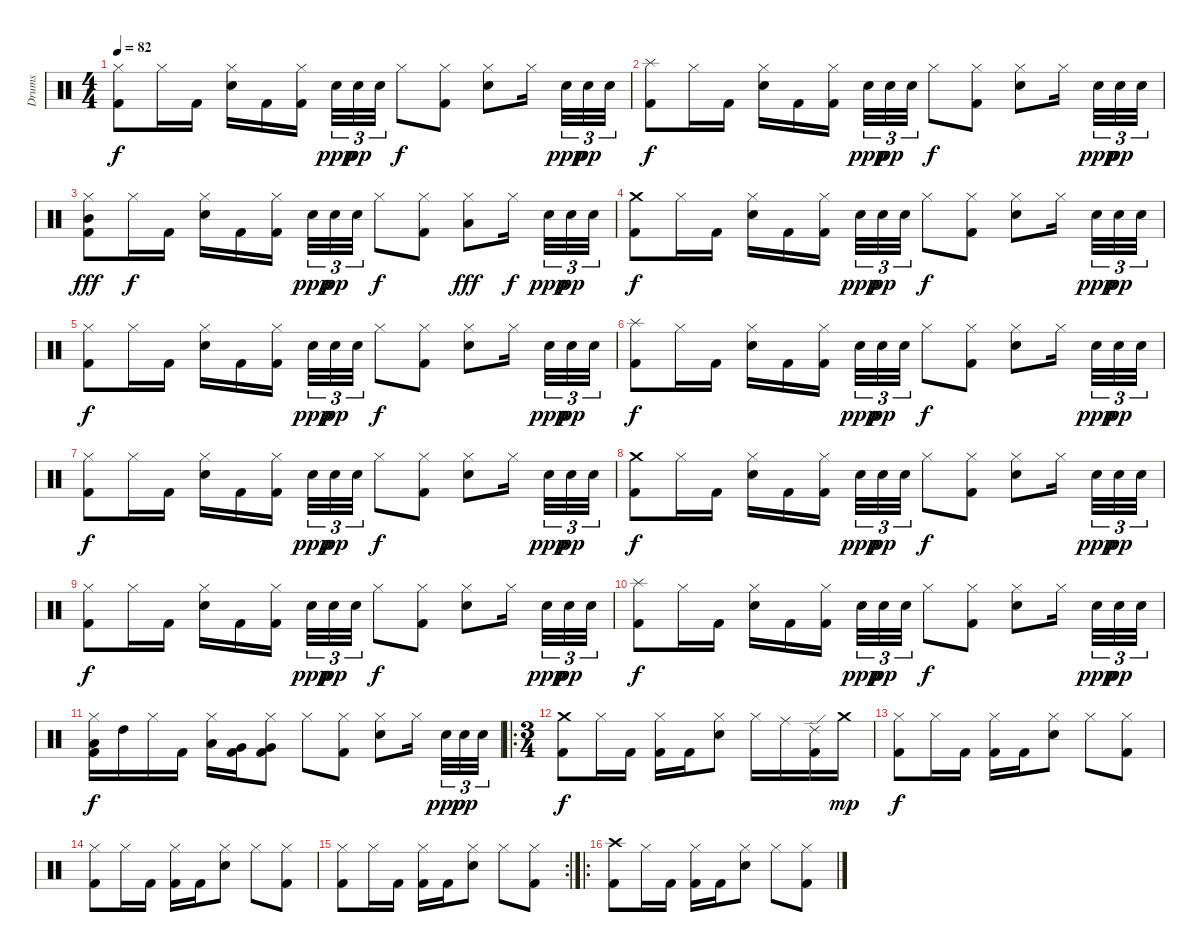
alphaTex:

\track ("Drums" "Drums") {instrument percussion}
\staff {score}
\articulation defaults
\ts (4 4)
\tempo 82
\clef neutral
\ks c
("Hi-Hat (closed)" "Kick (hit) 2").8{dy f} "Hi-Hat (closed)".16 "Kick (hit) 2".16 ("Hi-Hat (closed)" "Snare (hit) 2").16 "Kick (hit) 2".16 ("Hi-Hat (closed)" "Kick (hit) 2").16 "Snare (hit) 2".32{tu (3 2) dy ppp} "Snare (hit) 2".32{tu (3 2) dy pp} "Snare (hit) 2".32{tu (3 2)} "Hi-Hat (closed)".8{dy f} ("Hi-Hat (closed)" "Kick (hit) 2").8 ("Hi-Hat (closed)" "Snare (hit) 2").8 "Hi-Hat (closed)".16 "Snare (hit) 2".32{tu (3 2) dy ppp} "Snare (hit) 2".32{tu (3 2) dy pp} "Snare (hit) 2".32{tu (3 2)} |
("Splash (hit)" "Kick (hit) 2").8{dy f} "Hi-Hat (closed)".16 "Kick (hit) 2".16 ("Hi-Hat (closed)" "Snare (hit) 2").16 "Kick (hit) 2".16 ("Hi-Hat (closed)" "Kick (hit) 2").16 "Snare (hit) 2".32{tu (3 2) dy ppp} "Snare (hit) 2".32{tu (3 2) dy pp} "Snare (hit) 2".32{tu (3 2)} "Hi-Hat (closed)".8{dy f} ("Hi-Hat (closed)" "Kick (hit) 2").8 ("Hi-Hat (closed)" "Snare (hit) 2").8 "Hi-Hat (closed)".16 "Snare (hit) 2".32{tu (3 2) dy ppp} "Snare (hit) 2".32{tu (3 2) dy pp} "Snare (hit) 2".32{tu (3 2)} |
("Hi-Hat (closed)" "Mid Tom (hit)" "Kick (hit) 2").8{dy fff} "Hi-Hat (closed)".16{dy f} "Kick (hit) 2".16 ("Hi-Hat (closed)" "Snare (hit) 2").16 "Kick (hit) 2".16 ("Hi-Hat (closed)" "Kick (hit) 2").16 "Snare (hit) 2".32{tu (3 2) dy ppp} "Snare (hit) 2".32{tu (3 2) dy pp} "Snare (hit) 2".32{tu (3 2)} "Hi-Hat (closed)".8{dy f} ("Hi-Hat (closed)" "Kick (hit) 2").8 ("Hi-Hat (closed)" "Low Tom (hit)").8{dy fff} "Hi-Hat (closed)".16{dy f} "Snare (hit) 2".32{tu (3 2) dy ppp} "Snare (hit) 2".32{tu (3 2) dy pp} "Snare (hit) 2".32{tu (3 2)} |
("Crash medium (hit)" "Kick (hit) 2").8{dy f} "Hi-Hat (closed)".16 "Kick (hit) 2".16 ("Hi-Hat (closed)" "Snare (hit) 2").16 "Kick (hit) 2".16 ("Hi-Hat (closed)" "Kick (hit) 2").16 "Snare (hit) 2".32{tu (3 2) dy ppp} "Snare (hit) 2".32{tu (3 2) dy pp} "Snare (hit) 2".32{tu (3 2)} "Hi-Hat (closed)".8{dy f} ("Hi-Hat (closed)" "Kick (hit) 2").8 ("Hi-Hat (closed)" "Snare (hit) 2").8 "Hi-Hat (closed)".16 "Snare (hit) 2".32{tu (3 2) dy ppp} "Snare (hit) 2".32{tu (3 2) dy pp} "Snare (hit) 2".32{tu (3 2)} |
("Hi-Hat (closed)" "Kick (hit) 2").8{dy f} "Hi-Hat (closed)".16 "Kick (hit) 2".16 ("Hi-Hat (closed)" "Snare (hit) 2").16 "Kick (hit) 2".16 ("Hi-Hat (closed)" "Kick (hit) 2").16 "Snare (hit) 2".32{tu (3 2) dy ppp} "Snare (hit) 2".32{tu (3 2) dy pp} "Snare (hit) 2".32{tu (3 2)} "Hi-Hat (closed)".8{dy f} ("Hi-Hat (closed)" "Kick (hit) 2").8 ("Hi-Hat (closed)" "Snare (hit) 2").8 "Hi-Hat (closed)".16 "Snare (hit) 2".32{tu (3 2) dy ppp} "Snare (hit) 2".32{tu (3 2) dy pp} "Snare (hit) 2".32{tu (3 2)} |
("Splash (hit)" "Kick (hit) 2").8{dy f} "Hi-Hat (closed)".16 "Kick (hit) 2".16 ("Hi-Hat (closed)" "Snare (hit) 2").16 "Kick (hit) 2".16 ("Hi-Hat (closed)" "Kick (hit) 2").16 "Snare (hit) 2".32{tu (3 2) dy ppp} "Snare (hit) 2".32{tu (3 2) dy pp} "Snare (hit) 2".32{tu (3 2)} "Hi-Hat (closed)".8{dy f} ("Hi-Hat (closed)" "Kick (hit) 2").8 ("Hi-Hat (closed)" "Snare (hit) 2").8 "Hi-Hat (closed)".16 "Snare (hit) 2".32{tu (3 2) dy ppp} "Snare (hit) 2".32{tu (3 2) dy pp} "Snare (hit) 2".32{tu (3 2)} |
("Hi-Hat (closed)" "Kick (hit) 2").8{dy f} "Hi-Hat (closed)".16 "Kick (hit) 2".16 ("Hi-Hat (closed)" "Snare (hit) 2").16 "Kick (hit) 2".16 ("Hi-Hat (closed)" "Kick (hit) 2").16 "Snare (hit) 2".32{tu (3 2) dy ppp} "Snare (hit) 2".32{tu (3 2) dy pp} "Snare (hit) 2".32{tu (3 2)} "Hi-Hat (closed)".8{dy f} ("Hi-Hat (closed)" "Kick (hit) 2").8 ("Hi-Hat (closed)" "Snare (hit) 2").8 "Hi-Hat (closed)".16 "Snare (hit) 2".32{tu (3 2) dy ppp} "Snare (hit) 2".32{tu (3 2) dy pp} "Snare (hit) 2".32{tu (3 2)} |
("Crash medium (hit)" "Kick (hit) 2").8{dy f} "Hi-Hat (closed)".16 "Kick (hit) 2".16 ("Hi-Hat (closed)" "Snare (hit) 2").16 "Kick (hit) 2".16 ("Hi-Hat (closed)" "Kick (hit) 2").16 "Snare (hit) 2".32{tu (3 2) dy ppp} "Snare (hit) 2".32{tu (3 2) dy pp} "Snare (hit) 2".32{tu (3 2)} "Hi-Hat (closed)".8{dy f} ("Hi-Hat (closed)" "Kick (hit) 2").8 ("Hi-Hat (closed)" "Snare (hit) 2").8 "Hi-Hat (closed)".16 "Snare (hit) 2".32{tu (3 2) dy ppp} "Snare (hit) 2".32{tu (3 2) dy pp} "Snare (hit) 2".32{tu (3 2)} |
("Hi-Hat (closed)" "Kick (hit) 2").8{dy f} "Hi-Hat (closed)".16 "Kick (hit) 2".16 ("Hi-Hat (closed)" "Snare (hit) 2").16 "Kick (hit) 2".16 ("Hi-Hat (closed)" "Kick (hit) 2").16 "Snare (hit) 2".32{tu (3 2) dy ppp} "Snare (hit) 2".32{tu (3 2) dy pp} "Snare (hit) 2".32{tu (3 2)} "Hi-Hat (closed)".8{dy f} ("Hi-Hat (closed)" "Kick (hit) 2").8 ("Hi-Hat (closed)" "Snare (hit) 2").8 "Hi-Hat (closed)".16 "Snare (hit) 2".32{tu (3 2) dy ppp} "Snare (hit) 2".32{tu (3 2) dy pp} "Snare (hit) 2".32{tu (3 2)} |
("Splash (hit)" "Kick (hit) 2").8{dy f} "Hi-Hat (closed)".16 "Kick (hit) 2".16 ("Hi-Hat (closed)" "Snare (hit) 2").16 "Kick (hit) 2".16 ("Hi-Hat (closed)" "Kick (hit) 2").16 "Snare (hit) 2".32{tu (3 2) dy ppp} "Snare (hit) 2".32{tu (3 2) dy pp} "Snare (hit) 2".32{tu (3 2)} "Hi-Hat (closed)".8{dy f} ("Hi-Hat (closed)" "Kick (hit) 2").8 ("Hi-Hat (closed)" "Snare (hit) 2").8 "Hi-Hat (closed)".16 "Snare (hit) 2".32{tu (3 2) dy ppp} "Snare (hit) 2".32{tu (3 2) dy pp} "Snare (hit) 2".32{tu (3 2)} |
("Hi-Hat (closed)" "Low Tom (hit)" "Kick (hit) 2").16{dy f} "High Tom (hit)".16 "Hi-Hat (closed)".16 "Kick (hit) 2".16 ("Hi-Hat (closed)" "Low Tom (hit)").16 ("Very Low Tom (hit)" "Kick (hit) 2").16 ("Hi-Hat (closed)" "Very Low Tom (hit)" "Kick (hit) 2").8 "Hi-Hat (closed)".8 ("Hi-Hat (closed)" "Kick (hit) 2").8 ("Hi-Hat (closed)" "Snare (hit) 2").8 "Hi-Hat (closed)".16 "Snare (hit) 2".32{tu (3 2) dy ppp} "Snare (hit) 2".32{tu (3 2) dy pp} "Snare (hit) 2".32{tu (3 2)} |
\ro
\ts (3 4)
("Crash medium (hit)" "Kick (hit) 2").8{dy f} "Hi-Hat (closed)".16 "Kick (hit) 2".16 ("Hi-Hat (closed)" "Kick (hit) 2").16 "Kick (hit) 2".16 ("Hi-Hat (closed)" "Snare (hit) 2").8 "Hi-Hat (closed)".16 "Ride (middle)".16 ("Ride (edge) 2" "Kick (hit) 2").16 "Crash medium (hit)".16{dy mp} |
("Hi-Hat (closed)" "Kick (hit) 2").8{dy f} "Hi-Hat (closed)".16 "Kick (hit) 2".16 ("Hi-Hat (closed)" "Kick (hit) 2").16 "Kick (hit) 2".16 ("Hi-Hat (closed)" "Snare (hit) 2").8 "Hi-Hat (closed)".8 ("Hi-Hat (closed)" "Kick (hit) 2").8 |
("Hi-Hat (closed)" "Kick (hit) 2").8 "Hi-Hat (closed)".16 "Kick (hit) 2".16 ("Hi-Hat (closed)" "Kick (hit) 2").16 "Kick (hit) 2".16 ("Hi-Hat (closed)" "Snare (hit) 2").8 "Hi-Hat (closed)".8 ("Hi-Hat (closed)" "Kick (hit) 2").8 |
\rc 2
("Hi-Hat (closed)" "Kick (hit) 2").8 "Hi-Hat (closed)".16 "Kick (hit) 2".16 ("Hi-Hat (closed)" "Kick (hit) 2").16 "Kick (hit) 2".16 ("Hi-Hat (closed)" "Snare (hit) 2").8 "Hi-Hat (closed)".8 ("Hi-Hat (closed)" "Kick (hit) 2").8 |
\ro
("Crash high (hit)" "Kick (hit) 2").8 "Hi-Hat (closed)".16 "Kick (hit) 2".16 ("Hi-Hat (closed)" "Kick (hit) 2").16 "Kick (hit) 2".16 ("Hi-Hat (closed)" "Snare (hit) 2").8 "Hi-Hat (closed)".8 ("Hi-Hat (closed)" "Kick (hit) 2").8
